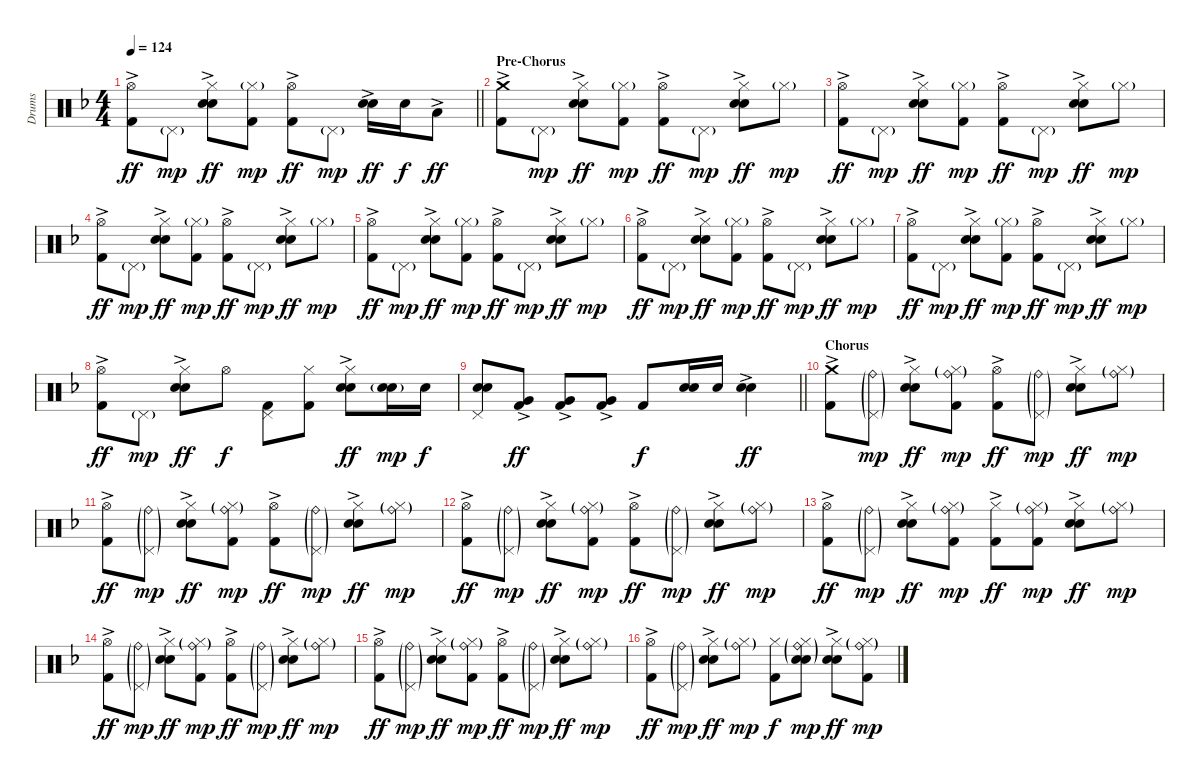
\track ("Drums" "Drums") {instrument percussion}
\staff {score}
\articulation defaults
\ts (4 4)
\tempo 124
\clef neutral
\barLineRight lightlight
\ks f
("Hi-Hat (open)" "Kick (hit) 2"{ac}).8{dy ff} "Pedal Hi-Hat (hit)"{g}.8{dy mp} ("Hi-Hat (closed)" "Electric Snare (hit)"{ac} "Snare (hit) 2").8{dy ff} ("Hi-Hat (closed)"{g} "Kick (hit) 2").8{dy mp} ("Hi-Hat (open)" "Kick (hit) 2"{ac}).8{dy ff} "Pedal Hi-Hat (hit)"{g}.8{dy mp} ("Electric Snare (hit)"{ac} "Snare (hit) 2").16{dy ff} "Snare (hit) 2".16{dy f} "Low Tom (hit)"{ac}.8{dy ff} |
\section ("" "Pre-Chorus")
("Crash medium (hit)" "Kick (hit) 2"{ac}).8 "Pedal Hi-Hat (hit)"{g}.8{dy mp} ("Hi-Hat (closed)" "Electric Snare (hit)"{ac} "Snare (hit) 2").8{dy ff} ("Hi-Hat (closed)"{g} "Kick (hit) 2").8{dy mp} ("Hi-Hat (open)" "Kick (hit) 2"{ac}).8{dy ff} "Pedal Hi-Hat (hit)"{g}.8{dy mp} ("Hi-Hat (closed)" "Electric Snare (hit)"{ac} "Snare (hit) 2").8{dy ff} "Hi-Hat (closed)"{g}.8{dy mp} |
("Hi-Hat (open)" "Kick (hit) 2"{ac}).8{dy ff} "Pedal Hi-Hat (hit)"{g}.8{dy mp} ("Hi-Hat (closed)" "Electric Snare (hit)"{ac} "Snare (hit) 2").8{dy ff} ("Hi-Hat (closed)"{g} "Kick (hit) 2").8{dy mp} ("Hi-Hat (open)" "Kick (hit) 2"{ac}).8{dy ff} "Pedal Hi-Hat (hit)"{g}.8{dy mp} ("Hi-Hat (closed)" "Electric Snare (hit)"{ac} "Snare (hit) 2").8{dy ff} "Hi-Hat (closed)"{g}.8{dy mp} |
("Hi-Hat (open)" "Kick (hit) 2"{ac}).8{dy ff} "Pedal Hi-Hat (hit)"{g}.8{dy mp} ("Hi-Hat (closed)" "Electric Snare (hit)"{ac} "Snare (hit) 2").8{dy ff} ("Hi-Hat (closed)"{g} "Kick (hit) 2").8{dy mp} ("Hi-Hat (open)" "Kick (hit) 2"{ac}).8{dy ff} "Pedal Hi-Hat (hit)"{g}.8{dy mp} ("Hi-Hat (closed)" "Electric Snare (hit)"{ac} "Snare (hit) 2").8{dy ff} "Hi-Hat (closed)"{g}.8{dy mp} |
("Hi-Hat (open)" "Kick (hit) 2"{ac}).8{dy ff} "Pedal Hi-Hat (hit)"{g}.8{dy mp} ("Hi-Hat (closed)" "Electric Snare (hit)"{ac} "Snare (hit) 2").8{dy ff} ("Hi-Hat (closed)"{g} "Kick (hit) 2").8{dy mp} ("Hi-Hat (open)" "Kick (hit) 2"{ac}).8{dy ff} "Pedal Hi-Hat (hit)"{g}.8{dy mp} ("Hi-Hat (closed)" "Electric Snare (hit)"{ac} "Snare (hit) 2").8{dy ff} "Hi-Hat (closed)"{g}.8{dy mp} |
("Hi-Hat (open)" "Kick (hit) 2"{ac}).8{dy ff} "Pedal Hi-Hat (hit)"{g}.8{dy mp} ("Hi-Hat (closed)" "Electric Snare (hit)"{ac} "Snare (hit) 2").8{dy ff} ("Hi-Hat (closed)"{g} "Kick (hit) 2").8{dy mp} ("Hi-Hat (open)" "Kick (hit) 2"{ac}).8{dy ff} "Pedal Hi-Hat (hit)"{g}.8{dy mp} ("Hi-Hat (closed)" "Electric Snare (hit)"{ac} "Snare (hit) 2").8{dy ff} "Hi-Hat (closed)"{g}.8{dy mp} |
("Hi-Hat (open)" "Kick (hit) 2"{ac}).8{dy ff} "Pedal Hi-Hat (hit)"{g}.8{dy mp} ("Hi-Hat (closed)" "Electric Snare (hit)"{ac} "Snare (hit) 2").8{dy ff} ("Hi-Hat (closed)"{g} "Kick (hit) 2").8{dy mp} ("Hi-Hat (open)" "Kick (hit) 2"{ac}).8{dy ff} "Pedal Hi-Hat (hit)"{g}.8{dy mp} ("Hi-Hat (closed)" "Electric Snare (hit)"{ac} "Snare (hit) 2").8{dy ff} "Hi-Hat (closed)"{g}.8{dy mp} |
("Hi-Hat (open)" "Kick (hit) 2"{ac}).8{dy ff} "Pedal Hi-Hat (hit)"{g}.8{dy mp} ("Hi-Hat (closed)" "Electric Snare (hit)"{ac} "Snare (hit) 2").8{dy ff} "Hi-Hat (open)".8{dy f} ("Pedal Hi-Hat (hit)" "Kick (hit) 2").8 ("Hi-Hat (closed)" "Kick (hit) 2").8 ("Hi-Hat (closed)" "Electric Snare (hit)"{ac} "Snare (hit) 2").8{dy ff} ("Electric Snare (hit)"{g} "Snare (hit) 2").16{dy mp} "Snare (hit) 2".16{dy f} |
\barLineRight lightlight
("Electric Snare (hit)" "Snare (hit) 2" "Pedal Hi-Hat (hit)").8 ("Very Low Tom (hit)" "Kick (hit) 2"{ac}).8{dy ff} ("Very Low Tom (hit)" "Kick (hit) 2"{ac}).8 ("Very Low Tom (hit)" "Kick (hit) 2"{ac}).8 "Kick (hit) 2".8{dy f} ("Electric Snare (hit)" "Snare (hit) 2").16 "Snare (hit) 2".16 ("Electric Snare (hit)"{ac} "Snare (hit) 2").4{dy ff} |
\section ("" "Chorus")
("Crash medium (hit)" "Kick (hit) 2"{ac}).8 ("Ride (bell)"{g} "Pedal Hi-Hat (hit)"{g}).8{dy mp} ("Hi-Hat (closed)" "Electric Snare (hit)"{ac} "Snare (hit) 2").8{dy ff} ("Hi-Hat (closed)"{g} "Ride (bell)"{g} "Kick (hit) 2").8{dy mp} ("Hi-Hat (open)" "Kick (hit) 2"{ac}).8{dy ff} ("Ride (bell)"{g} "Pedal Hi-Hat (hit)"{g}).8{dy mp} ("Hi-Hat (closed)" "Electric Snare (hit)"{ac} "Snare (hit) 2").8{dy ff} ("Hi-Hat (closed)"{g} "Ride (bell)"{g}).8{dy mp} |
("Hi-Hat (open)" "Kick (hit) 2"{ac}).8{dy ff} ("Ride (bell)"{g} "Pedal Hi-Hat (hit)"{g}).8{dy mp} ("Hi-Hat (closed)" "Electric Snare (hit)"{ac} "Snare (hit) 2").8{dy ff} ("Hi-Hat (closed)"{g} "Ride (bell)"{g} "Kick (hit) 2").8{dy mp} ("Hi-Hat (open)" "Kick (hit) 2"{ac}).8{dy ff} ("Ride (bell)"{g} "Pedal Hi-Hat (hit)"{g}).8{dy mp} ("Hi-Hat (closed)" "Electric Snare (hit)"{ac} "Snare (hit) 2").8{dy ff} ("Hi-Hat (closed)"{g} "Ride (bell)"{g}).8{dy mp} |
("Hi-Hat (open)" "Kick (hit) 2"{ac}).8{dy ff} ("Ride (bell)"{g} "Pedal Hi-Hat (hit)"{g}).8{dy mp} ("Hi-Hat (closed)" "Electric Snare (hit)"{ac} "Snare (hit) 2").8{dy ff} ("Hi-Hat (closed)"{g} "Ride (bell)"{g} "Kick (hit) 2").8{dy mp} ("Hi-Hat (open)" "Kick (hit) 2"{ac}).8{dy ff} ("Ride (bell)"{g} "Pedal Hi-Hat (hit)"{g}).8{dy mp} ("Hi-Hat (closed)" "Electric Snare (hit)"{ac} "Snare (hit) 2").8{dy ff} ("Hi-Hat (closed)"{g} "Ride (bell)"{g}).8{dy mp} |
("Hi-Hat (open)" "Kick (hit) 2"{ac}).8{dy ff} ("Ride (bell)"{g} "Pedal Hi-Hat (hit)"{g}).8{dy mp} ("Hi-Hat (closed)" "Electric Snare (hit)"{ac} "Snare (hit) 2").8{dy ff} ("Hi-Hat (closed)"{g} "Ride (bell)"{g} "Kick (hit) 2").8{dy mp} ("Hi-Hat (closed)" "Kick (hit) 2"{ac}).8{dy ff} ("Hi-Hat (closed)"{g} "Ride (bell)"{g} "Kick (hit) 2").8{dy mp} ("Hi-Hat (closed)" "Electric Snare (hit)"{ac} "Snare (hit) 2").8{dy ff} ("Hi-Hat (closed)"{g} "Ride (bell)"{g}).8{dy mp} |
("Hi-Hat (open)" "Kick (hit) 2"{ac}).8{dy ff} ("Ride (bell)"{g} "Pedal Hi-Hat (hit)"{g}).8{dy mp} ("Hi-Hat (closed)" "Electric Snare (hit)"{ac} "Snare (hit) 2").8{dy ff} ("Hi-Hat (closed)"{g} "Ride (bell)"{g} "Kick (hit) 2").8{dy mp} ("Hi-Hat (open)" "Kick (hit) 2"{ac}).8{dy ff} ("Ride (bell)"{g} "Pedal Hi-Hat (hit)"{g}).8{dy mp} ("Hi-Hat (closed)" "Electric Snare (hit)"{ac} "Snare (hit) 2").8{dy ff} ("Hi-Hat (closed)"{g} "Ride (bell)"{g}).8{dy mp} |
("Hi-Hat (open)" "Kick (hit) 2"{ac}).8{dy ff} ("Ride (bell)"{g} "Pedal Hi-Hat (hit)"{g}).8{dy mp} ("Hi-Hat (closed)" "Electric Snare (hit)"{ac} "Snare (hit) 2").8{dy ff} ("Hi-Hat (closed)"{g} "Ride (bell)"{g} "Kick (hit) 2").8{dy mp} ("Hi-Hat (open)" "Kick (hit) 2"{ac}).8{dy ff} ("Ride (bell)"{g} "Pedal Hi-Hat (hit)"{g}).8{dy mp} ("Hi-Hat (closed)" "Electric Snare (hit)"{ac} "Snare (hit) 2").8{dy ff} ("Hi-Hat (closed)"{g} "Ride (bell)"{g}).8{dy mp} |
("Hi-Hat (open)" "Kick (hit) 2"{ac}).8{dy ff} ("Ride (bell)"{g} "Pedal Hi-Hat (hit)"{g}).8{dy mp} ("Hi-Hat (closed)" "Electric Snare (hit)"{ac} "Snare (hit) 2").8{dy ff} ("Hi-Hat (closed)"{g} "Ride (bell)"{g}).8{dy mp} ("Hi-Hat (closed)" "Kick (hit) 2").8{dy f} ("Hi-Hat (closed)"{g} "Ride (bell)"{g} "Electric Snare (hit)"{g} "Snare (hit) 2").8{dy mp} ("Hi-Hat (closed)" "Electric Snare (hit)"{ac} "Snare (hit) 2").8{dy ff} ("Hi-Hat (closed)"{g} "Ride (bell)"{g} "Kick (hit) 2").8{dy mp}
